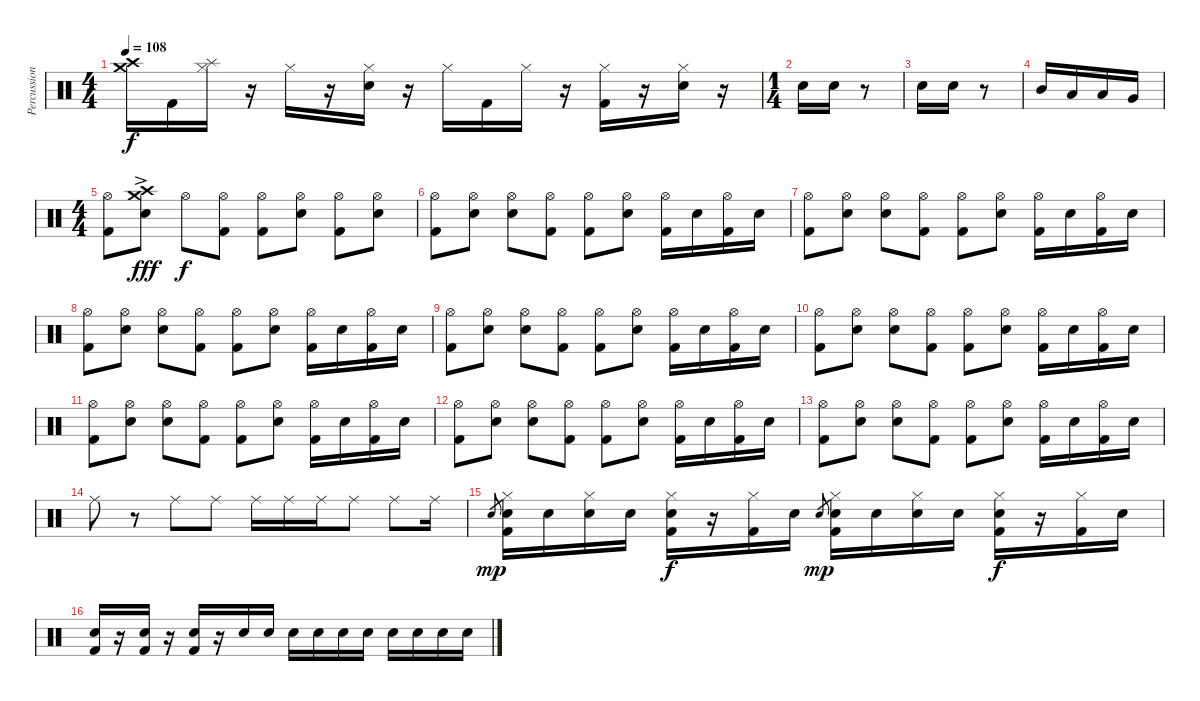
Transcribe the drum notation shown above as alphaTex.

\track ("Percussions" "Percussion") {instrument percussion}
\staff {score}
\articulation defaults
\ts (4 4)
\tempo 108
\clef neutral
\ks c
("Crash medium (hit)" "Crash high (hit)").16{dy f} "Kick (hit) 2".16 ("Hi-Hat (closed)" "Splash (hit)").16 r.16 "Hi-Hat (closed)".16 r.16 ("Hi-Hat (closed)" "Electric Snare (hit)").16 r.16 "Hi-Hat (closed)".16 "Kick (hit) 2".16 "Hi-Hat (closed)".16 r.16 ("Hi-Hat (closed)" "Kick (hit) 2").16 r.16 ("Hi-Hat (closed)" "Electric Snare (hit)").16 r.16 |
\ts (1 4)
"Electric Snare (hit)".16 "Electric Snare (hit)".16 r.8 |
"Electric Snare (hit)".16 "Electric Snare (hit)".16 r.8 |
"Mid Tom (hit)".16 "Low Tom (hit)".16 "Low Tom (hit)".16 "Very Low Tom (hit)".16 |
\ts (4 4)
("Hi-Hat (open)" "Kick (hit) 2").8{volume 14} ("Crash medium (hit)" "Crash high (hit)"{ac} "Electric Snare (hit)").8{dy fff} "Hi-Hat (open)".8{dy f} ("Hi-Hat (open)" "Kick (hit) 2").8 ("Hi-Hat (open)" "Kick (hit) 2").8 ("Hi-Hat (open)" "Electric Snare (hit)").8 ("Hi-Hat (open)" "Kick (hit) 2").8 ("Hi-Hat (open)" "Electric Snare (hit)").8 |
("Hi-Hat (open)" "Kick (hit) 2").8 ("Hi-Hat (open)" "Electric Snare (hit)").8 ("Hi-Hat (open)" "Snare (hit)").8 ("Hi-Hat (open)" "Kick (hit) 2").8 ("Hi-Hat (open)" "Kick (hit) 2").8 ("Hi-Hat (open)" "Electric Snare (hit)").8 ("Hi-Hat (open)" "Kick (hit) 2").16 "Electric Snare (hit)".16 ("Hi-Hat (open)" "Kick (hit) 2").16 "Electric Snare (hit)".16 |
("Hi-Hat (open)" "Kick (hit) 2").8 ("Hi-Hat (open)" "Electric Snare (hit)").8 ("Hi-Hat (open)" "Snare (hit)").8 ("Hi-Hat (open)" "Kick (hit) 2").8 ("Hi-Hat (open)" "Kick (hit) 2").8 ("Hi-Hat (open)" "Electric Snare (hit)").8 ("Hi-Hat (open)" "Kick (hit) 2").16 "Electric Snare (hit)".16 ("Hi-Hat (open)" "Kick (hit) 2").16 "Electric Snare (hit)".16 |
("Hi-Hat (open)" "Kick (hit) 2").8 ("Hi-Hat (open)" "Electric Snare (hit)").8 ("Hi-Hat (open)" "Snare (hit)").8 ("Hi-Hat (open)" "Kick (hit) 2").8 ("Hi-Hat (open)" "Kick (hit) 2").8 ("Hi-Hat (open)" "Electric Snare (hit)").8 ("Hi-Hat (open)" "Kick (hit) 2").16 "Electric Snare (hit)".16 ("Hi-Hat (open)" "Kick (hit) 2").16 "Electric Snare (hit)".16 |
("Hi-Hat (open)" "Kick (hit) 2").8 ("Hi-Hat (open)" "Electric Snare (hit)").8 ("Hi-Hat (open)" "Snare (hit)").8 ("Hi-Hat (open)" "Kick (hit) 2").8 ("Hi-Hat (open)" "Kick (hit) 2").8 ("Hi-Hat (open)" "Electric Snare (hit)").8 ("Hi-Hat (open)" "Kick (hit) 2").16 "Electric Snare (hit)".16 ("Hi-Hat (open)" "Kick (hit) 2").16 "Electric Snare (hit)".16 |
("Hi-Hat (open)" "Kick (hit) 2").8 ("Hi-Hat (open)" "Electric Snare (hit)").8 ("Hi-Hat (open)" "Snare (hit)").8 ("Hi-Hat (open)" "Kick (hit) 2").8 ("Hi-Hat (open)" "Kick (hit) 2").8 ("Hi-Hat (open)" "Electric Snare (hit)").8 ("Hi-Hat (open)" "Kick (hit) 2").16 "Electric Snare (hit)".16 ("Hi-Hat (open)" "Kick (hit) 2").16 "Electric Snare (hit)".16 |
("Hi-Hat (open)" "Kick (hit) 2").8 ("Hi-Hat (open)" "Electric Snare (hit)").8 ("Hi-Hat (open)" "Snare (hit)").8 ("Hi-Hat (open)" "Kick (hit) 2").8 ("Hi-Hat (open)" "Kick (hit) 2").8 ("Hi-Hat (open)" "Electric Snare (hit)").8 ("Hi-Hat (open)" "Kick (hit) 2").16 "Electric Snare (hit)".16 ("Hi-Hat (open)" "Kick (hit) 2").16 "Electric Snare (hit)".16 |
("Hi-Hat (open)" "Kick (hit) 2").8 ("Hi-Hat (open)" "Electric Snare (hit)").8 ("Hi-Hat (open)" "Snare (hit)").8 ("Hi-Hat (open)" "Kick (hit) 2").8 ("Hi-Hat (open)" "Kick (hit) 2").8 ("Hi-Hat (open)" "Electric Snare (hit)").8 ("Hi-Hat (open)" "Kick (hit) 2").16 "Electric Snare (hit)".16 ("Hi-Hat (open)" "Kick (hit) 2").16 "Electric Snare (hit)".16 |
("Hi-Hat (open)" "Kick (hit) 2").8 ("Hi-Hat (open)" "Electric Snare (hit)").8 ("Hi-Hat (open)" "Snare (hit)").8 ("Hi-Hat (open)" "Kick (hit) 2").8 ("Hi-Hat (open)" "Kick (hit) 2").8 ("Hi-Hat (open)" "Electric Snare (hit)").8 ("Hi-Hat (open)" "Kick (hit) 2").16 "Electric Snare (hit)".16 ("Hi-Hat (open)" "Kick (hit) 2").16 "Electric Snare (hit)".16 |
"Ride (middle)".8 r.8 "Ride (middle)".8 "Ride (middle)".8 "Ride (middle)".16 "Ride (middle)".16 "Ride (middle)".16 "Ride (middle)".8 "Ride (middle)".8 "Ride (middle)".16 |
"Electric Snare (hit)".8{gr dy mp} ("Hi-Hat (closed)" "Electric Snare (hit)" "Kick (hit) 2").16 "Electric Snare (hit)".16 ("Hi-Hat (closed)" "Electric Snare (hit)").16 "Electric Snare (hit)".16 ("Hi-Hat (closed)" "Electric Snare (hit)" "Kick (hit) 2").16{dy f} r.16 ("Hi-Hat (closed)" "Kick (hit) 2").16 "Electric Snare (hit)".16 "Electric Snare (hit)".8{gr dy mp} ("Hi-Hat (closed)" "Electric Snare (hit)" "Kick (hit) 2").16 "Electric Snare (hit)".16 ("Hi-Hat (closed)" "Electric Snare (hit)").16 "Electric Snare (hit)".16 ("Hi-Hat (closed)" "Electric Snare (hit)" "Kick (hit) 2").16{dy f} r.16 ("Hi-Hat (closed)" "Kick (hit) 2").16 "Electric Snare (hit)".16 |
("Snare (hit) 2" "Kick (hit) 2").16{volume 16} r.16 ("Snare (hit) 2" "Kick (hit) 2").16 r.16 ("Snare (hit) 2" "Kick (hit) 2").16 r.16 "Snare (hit) 2".16 "Snare (hit) 2".16 "Snare (hit) 2".16 "Snare (hit) 2".16 "Snare (hit) 2".16 "Snare (hit) 2".16 "Snare (hit) 2".16 "Snare (hit) 2".16 "Snare (hit) 2".16 "Snare (hit) 2".16
